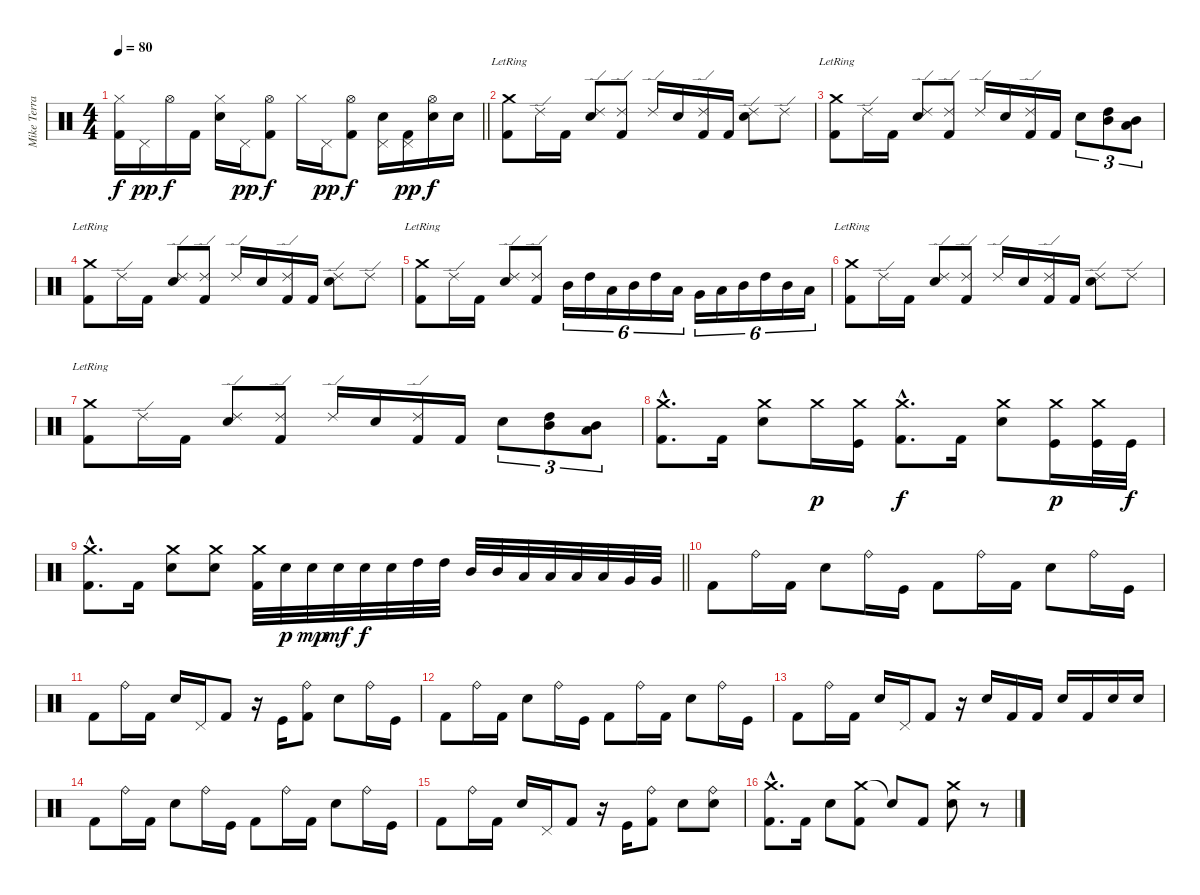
\track ("Mike Terrana" "Mike Terra") {instrument percussion}
\staff {score}
\articulation defaults
\ts (4 4)
\tempo 80
\clef neutral
\barLineRight lightlight
\ks c
("Hi-Hat (closed)" "Kick (hit) 2").16{dy f} "Pedal Hi-Hat (hit)".16{dy pp} "Hi-Hat (open)".16{dy f} "Kick (hit) 2".16 ("Hi-Hat (closed)" "Electric Snare (hit)").16 "Pedal Hi-Hat (hit)".16{dy pp} ("Hi-Hat (open)" "Kick (hit) 2").8{dy f} "Hi-Hat (closed)".16 "Pedal Hi-Hat (hit)".16{dy pp} ("Hi-Hat (open)" "Kick (hit) 2").8{dy f} ("Pedal Hi-Hat (hit)" "Electric Snare (hit)").16 ("Pedal Hi-Hat (hit)" "Kick (hit) 2").16{dy pp} ("Hi-Hat (open)" "Electric Snare (hit)").16{dy f} "Electric Snare (hit)".16 |
("Crash medium (hit)"{lr} "Kick (hit) 2").8 "Ride (edge) 2".16 "Kick (hit) 2".16 ("Ride (edge) 2" "Electric Snare (hit)").8 ("Ride (edge) 2" "Kick (hit) 2").8 "Ride (edge) 2".16 "Electric Snare (hit)".16 ("Ride (edge) 2" "Kick (hit) 2").16 "Kick (hit) 2".16 ("Ride (edge) 2" "Electric Snare (hit)").8 "Ride (edge) 2".8 |
("Crash medium (hit)"{lr} "Kick (hit) 2").8 "Ride (edge) 2".16 "Kick (hit) 2".16 ("Ride (edge) 2" "Electric Snare (hit)").8 ("Ride (edge) 2" "Kick (hit) 2").8 "Ride (edge) 2".16 "Electric Snare (hit)".16 ("Ride (edge) 2" "Kick (hit) 2").16 "Kick (hit) 2".16 "Electric Snare (hit)".8{tu (3 2)} ("High Tom (hit)" "Mid Tom (hit)").8{tu (3 2)} ("Mid Tom (hit)" "Low Tom (hit)").8{tu (3 2)} |
("Crash medium (hit)"{lr} "Kick (hit) 2").8 "Ride (edge) 2".16 "Kick (hit) 2".16 ("Ride (edge) 2" "Electric Snare (hit)").8 ("Ride (edge) 2" "Kick (hit) 2").8 "Ride (edge) 2".16 "Electric Snare (hit)".16 ("Ride (edge) 2" "Kick (hit) 2").16 "Kick (hit) 2".16 ("Ride (edge) 2" "Electric Snare (hit)").8 "Ride (edge) 2".8 |
("Crash medium (hit)"{lr} "Kick (hit) 2").8 "Ride (edge) 2".16 "Kick (hit) 2".16 ("Ride (edge) 2" "Electric Snare (hit)").8 ("Ride (edge) 2" "Kick (hit) 2").8 "Mid Tom (hit)".16{tu (6 4)} "High Tom (hit)".16{tu (6 4)} "Low Tom (hit)".16{tu (6 4)} "Mid Tom (hit)".16{tu (6 4)} "High Tom (hit)".16{tu (6 4)} "Low Tom (hit)".16{tu (6 4)} "Very Low Tom (hit)".16{tu (6 4)} "Low Tom (hit)".16{tu (6 4)} "Mid Tom (hit)".16{tu (6 4)} "High Tom (hit)".16{tu (6 4)} "Mid Tom (hit)".16{tu (6 4)} "Low Tom (hit)".16{tu (6 4)} |
("Crash medium (hit)"{lr} "Kick (hit) 2").8 "Ride (edge) 2".16 "Kick (hit) 2".16 ("Ride (edge) 2" "Electric Snare (hit)").8 ("Ride (edge) 2" "Kick (hit) 2").8 "Ride (edge) 2".16 "Electric Snare (hit)".16 ("Ride (edge) 2" "Kick (hit) 2").16 "Kick (hit) 2".16 ("Ride (edge) 2" "Electric Snare (hit)").8 "Ride (edge) 2".8 |
("Crash medium (hit)"{lr} "Kick (hit) 2").8 "Ride (edge) 2".16 "Kick (hit) 2".16 ("Ride (edge) 2" "Electric Snare (hit)").8 ("Ride (edge) 2" "Kick (hit) 2").8 "Ride (edge) 2".16 "Electric Snare (hit)".16 ("Ride (edge) 2" "Kick (hit) 2").16 "Kick (hit) 2".16 "Electric Snare (hit)".8{tu (3 2)} ("High Tom (hit)" "Mid Tom (hit)").8{tu (3 2)} ("Mid Tom (hit)" "Low Tom (hit)").8{tu (3 2)} |
("Crash medium (hit)"{hac} "Kick (hit) 2"{hac}).8{d} "Kick (hit) 2".16 ("Crash medium (hit)" "Electric Snare (hit)").8 "Crash medium (hit)".16{dy p} ("Crash medium (hit)" "Kick (hit)").16 ("Crash medium (hit)"{hac} "Kick (hit) 2"{hac}).8{d dy f} "Kick (hit) 2".16 ("Crash medium (hit)" "Electric Snare (hit)").8 ("Crash medium (hit)" "Kick (hit)").16{dy p} ("Crash medium (hit)" "Kick (hit)").32 "Kick (hit)".32{dy f} |
\barLineRight lightlight
("Crash medium (hit)"{hac} "Kick (hit) 2"{hac}).8{d} "Kick (hit) 2".16 ("Crash medium (hit)" "Electric Snare (hit)").8 ("Crash medium (hit)" "Electric Snare (hit)").8 ("Crash medium (hit)" "Kick (hit) 2").32 "Electric Snare (hit)".32{dy p} "Electric Snare (hit)".32{dy mp} "Electric Snare (hit)".32{dy mf} "Electric Snare (hit)".32{dy f} "Electric Snare (hit)".32 "High Tom (hit)".32 "High Tom (hit)".32 "Mid Tom (hit)".32 "Mid Tom (hit)".32 "Low Tom (hit)".32 "Low Tom (hit)".32 "Low Tom (hit)".32 "Low Tom (hit)".32 "Very Low Tom (hit)".32 "Very Low Tom (hit)".32 |
"Kick (hit) 2".8 "Ride (bell)".16 "Kick (hit) 2".16 "Electric Snare (hit)".8 "Ride (bell)".16 "Kick (hit)".16 "Kick (hit) 2".8 "Ride (bell)".16 "Kick (hit) 2".16 "Electric Snare (hit)".8 "Ride (bell)".16 "Kick (hit)".16 |
"Kick (hit) 2".8 "Ride (bell)".16 "Kick (hit) 2".16 "Electric Snare (hit)".16 "Pedal Hi-Hat (hit)".16 "Kick (hit) 2".8 r.16 "Kick (hit)".16 ("Ride (bell)" "Kick (hit) 2").8 "Electric Snare (hit)".8 "Ride (bell)".16 "Kick (hit)".16 |
"Kick (hit) 2".8 "Ride (bell)".16 "Kick (hit) 2".16 "Electric Snare (hit)".8 "Ride (bell)".16 "Kick (hit)".16 "Kick (hit) 2".8 "Ride (bell)".16 "Kick (hit) 2".16 "Electric Snare (hit)".8 "Ride (bell)".16 "Kick (hit)".16 |
"Kick (hit) 2".8 "Ride (bell)".16 "Kick (hit) 2".16 "Electric Snare (hit)".16 "Pedal Hi-Hat (hit)".16 "Kick (hit) 2".8 r.16 "Electric Snare (hit)".16 "Kick (hit) 2".16 "Kick (hit) 2".16 "Electric Snare (hit)".16 "Kick (hit) 2".16 "Electric Snare (hit)".16 "Electric Snare (hit)".16 |
"Kick (hit) 2".8 "Ride (bell)".16 "Kick (hit) 2".16 "Electric Snare (hit)".8 "Ride (bell)".16 "Kick (hit)".16 "Kick (hit) 2".8 "Ride (bell)".16 "Kick (hit) 2".16 "Electric Snare (hit)".8 "Ride (bell)".16 "Kick (hit)".16 |
"Kick (hit) 2".8 "Ride (bell)".16 "Kick (hit) 2".16 "Electric Snare (hit)".16 "Pedal Hi-Hat (hit)".16 "Kick (hit) 2".8 r.16 "Kick (hit)".16 ("Ride (bell)" "Kick (hit) 2").8 "Electric Snare (hit)".8 ("Ride (bell)" "Electric Snare (hit)").8 |
("Crash medium (hit)"{hac} "Kick (hit) 2"{hac}).8{d} "Kick (hit) 2".16 "Electric Snare (hit)".8 ("Crash medium (hit)" "Kick (hit) 2").8 "Snare (hit)"{t}.8 "Kick (hit) 2".8 ("Crash medium (hit)" "Electric Snare (hit)").8 r.8
